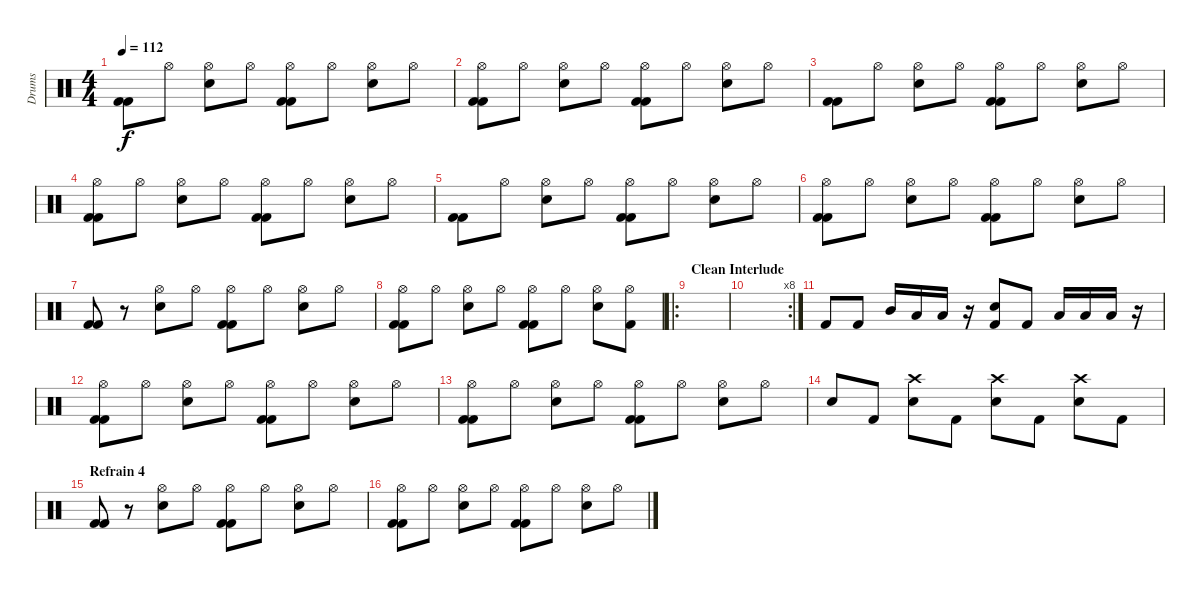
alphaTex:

\track ("Drums" "Drums") {instrument percussion}
\staff {score}
\articulation defaults
\ts (4 4)
\tempo 112
\clef neutral
\ks c
("Kick (hit) 2" "Kick (hit) 2").8{dy f} "Hi-Hat (open)".8 ("Hi-Hat (open)" "Electric Snare (hit)").8 "Hi-Hat (open)".8 ("Hi-Hat (open)" "Kick (hit) 2" "Kick (hit) 2").8 "Hi-Hat (open)".8 ("Hi-Hat (open)" "Electric Snare (hit)").8 "Hi-Hat (open)".8 |
("Hi-Hat (open)" "Kick (hit) 2" "Kick (hit) 2").8 "Hi-Hat (open)".8 ("Hi-Hat (open)" "Electric Snare (hit)").8 "Hi-Hat (open)".8 ("Hi-Hat (open)" "Kick (hit) 2" "Kick (hit) 2").8 "Hi-Hat (open)".8 ("Hi-Hat (open)" "Electric Snare (hit)").8 "Hi-Hat (open)".8 |
("Kick (hit) 2" "Kick (hit) 2").8 "Hi-Hat (open)".8 ("Hi-Hat (open)" "Electric Snare (hit)").8 "Hi-Hat (open)".8 ("Hi-Hat (open)" "Kick (hit) 2" "Kick (hit) 2").8 "Hi-Hat (open)".8 ("Hi-Hat (open)" "Electric Snare (hit)").8 "Hi-Hat (open)".8 |
("Hi-Hat (open)" "Kick (hit) 2" "Kick (hit) 2").8 "Hi-Hat (open)".8 ("Hi-Hat (open)" "Electric Snare (hit)").8 "Hi-Hat (open)".8 ("Hi-Hat (open)" "Kick (hit) 2" "Kick (hit) 2").8 "Hi-Hat (open)".8 ("Hi-Hat (open)" "Electric Snare (hit)").8 "Hi-Hat (open)".8 |
("Kick (hit) 2" "Kick (hit) 2").8 "Hi-Hat (open)".8 ("Hi-Hat (open)" "Electric Snare (hit)").8 "Hi-Hat (open)".8 ("Hi-Hat (open)" "Kick (hit) 2" "Kick (hit) 2").8 "Hi-Hat (open)".8 ("Hi-Hat (open)" "Electric Snare (hit)").8 "Hi-Hat (open)".8 |
("Hi-Hat (open)" "Kick (hit) 2" "Kick (hit) 2").8 "Hi-Hat (open)".8 ("Hi-Hat (open)" "Electric Snare (hit)").8 "Hi-Hat (open)".8 ("Hi-Hat (open)" "Kick (hit) 2" "Kick (hit) 2").8 "Hi-Hat (open)".8 ("Hi-Hat (open)" "Electric Snare (hit)").8 "Hi-Hat (open)".8 |
("Kick (hit) 2" "Kick (hit) 2").8 r.8 ("Hi-Hat (open)" "Electric Snare (hit)").8 "Hi-Hat (open)".8 ("Hi-Hat (open)" "Kick (hit) 2" "Kick (hit) 2").8 "Hi-Hat (open)".8 ("Hi-Hat (open)" "Electric Snare (hit)").8 "Hi-Hat (open)".8 |
("Hi-Hat (open)" "Kick (hit) 2" "Kick (hit) 2").8 "Hi-Hat (open)".8 ("Hi-Hat (open)" "Electric Snare (hit)").8 "Hi-Hat (open)".8 ("Hi-Hat (open)" "Kick (hit) 2" "Kick (hit) 2").8 "Hi-Hat (open)".8 ("Hi-Hat (open)" "Electric Snare (hit)").8 ("Hi-Hat (open)" "Kick (hit) 2").8 |
\ro
\section ("" "Clean Interlude")
|
\rc 8
|
"Kick (hit) 2".8 "Kick (hit) 2".8 "Mid Tom (hit)".16 "Low Tom (hit)".16 "Low Floor Tom (hit)".16 r.16 ("Snare (hit) 2" "Kick (hit) 2").8 "Kick (hit) 2".8 "Low Tom (hit)".16 "Low Tom (hit)".16 "Low Floor Tom (hit)".16 r.16 |
("Hi-Hat (open)" "Kick (hit) 2" "Kick (hit) 2").8 "Hi-Hat (open)".8 ("Hi-Hat (open)" "Electric Snare (hit)").8 "Hi-Hat (open)".8 ("Hi-Hat (open)" "Kick (hit) 2" "Kick (hit) 2").8 "Hi-Hat (open)".8 ("Hi-Hat (open)" "Electric Snare (hit)").8 "Hi-Hat (open)".8 |
("Hi-Hat (open)" "Kick (hit) 2" "Kick (hit) 2").8 "Hi-Hat (open)".8 ("Hi-Hat (open)" "Electric Snare (hit)").8 "Hi-Hat (open)".8 ("Hi-Hat (open)" "Kick (hit) 2" "Kick (hit) 2").8 "Hi-Hat (open)".8 ("Hi-Hat (open)" "Electric Snare (hit)").8 "Hi-Hat (open)".8 |
"Electric Snare (hit)".8 "Kick (hit) 2".8 ("Crash high (hit)" "Electric Snare (hit)").8 "Kick (hit) 2".8 ("Crash high (hit)" "Electric Snare (hit)").8 "Kick (hit) 2".8 ("Crash high (hit)" "Electric Snare (hit)").8 "Kick (hit) 2".8 |
\section ("" "Refrain 4")
("Kick (hit) 2" "Kick (hit) 2").8 r.8 ("Hi-Hat (open)" "Electric Snare (hit)").8 "Hi-Hat (open)".8 ("Hi-Hat (open)" "Kick (hit) 2" "Kick (hit) 2").8 "Hi-Hat (open)".8 ("Hi-Hat (open)" "Electric Snare (hit)").8 "Hi-Hat (open)".8 |
("Hi-Hat (open)" "Kick (hit) 2" "Kick (hit) 2").8 "Hi-Hat (open)".8 ("Hi-Hat (open)" "Electric Snare (hit)").8 "Hi-Hat (open)".8 ("Hi-Hat (open)" "Kick (hit) 2" "Kick (hit) 2").8 "Hi-Hat (open)".8 ("Hi-Hat (open)" "Electric Snare (hit)").8 "Hi-Hat (open)".8
